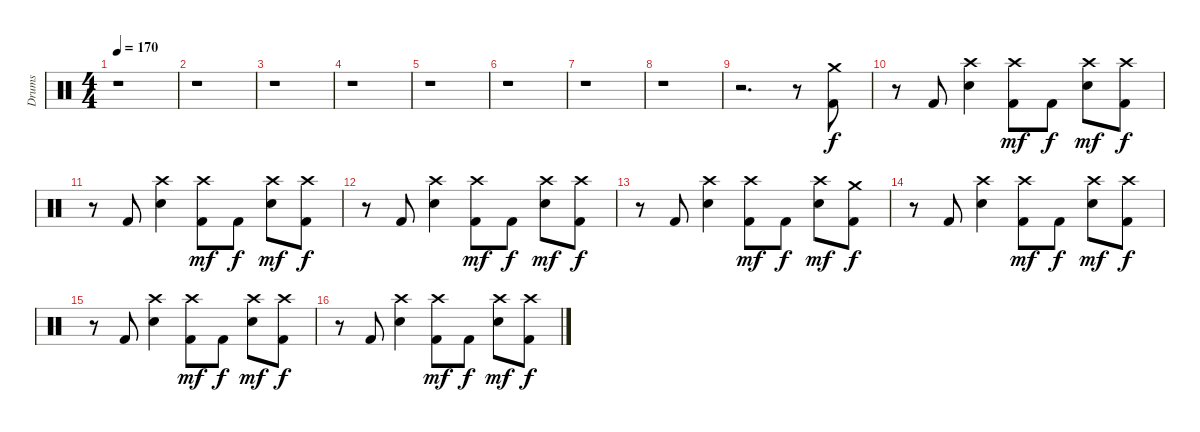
\track ("Drums" "Drums") {instrument percussion}
\staff {score}
\articulation defaults
\ts (4 4)
\tempo 170
\clef neutral
\ks c
r.1{dy f} |
r.1 |
r.1 |
r.1 |
r.1 |
r.1 |
r.1 |
r.1 |
r.2{d} r.8 ("Crash medium (hit)" "Kick (hit) 2").8 |
r.8 "Kick (hit) 2".8 ("Crash high (hit)" "Electric Snare (hit)").4 ("Crash high (hit)" "Kick (hit) 2").8{dy mf} "Kick (hit) 2".8{dy f} ("Crash high (hit)" "Electric Snare (hit)").8{dy mf} ("Crash high (hit)" "Kick (hit) 2").8{dy f} |
r.8 "Kick (hit) 2".8 ("Crash high (hit)" "Electric Snare (hit)").4 ("Crash high (hit)" "Kick (hit) 2").8{dy mf} "Kick (hit) 2".8{dy f} ("Crash high (hit)" "Electric Snare (hit)").8{dy mf} ("Crash high (hit)" "Kick (hit) 2").8{dy f} |
r.8 "Kick (hit) 2".8 ("Crash high (hit)" "Electric Snare (hit)").4 ("Crash high (hit)" "Kick (hit) 2").8{dy mf} "Kick (hit) 2".8{dy f} ("Crash high (hit)" "Electric Snare (hit)").8{dy mf} ("Crash high (hit)" "Kick (hit) 2").8{dy f} |
r.8 "Kick (hit) 2".8 ("Crash high (hit)" "Electric Snare (hit)").4 ("Crash high (hit)" "Kick (hit) 2").8{dy mf} "Kick (hit) 2".8{dy f} ("Crash high (hit)" "Electric Snare (hit)").8{dy mf} ("Crash medium (hit)" "Kick (hit) 2").8{dy f} |
r.8 "Kick (hit) 2".8 ("Crash high (hit)" "Electric Snare (hit)").4 ("Crash high (hit)" "Kick (hit) 2").8{dy mf} "Kick (hit) 2".8{dy f} ("Crash high (hit)" "Electric Snare (hit)").8{dy mf} ("Crash high (hit)" "Kick (hit) 2").8{dy f} |
r.8 "Kick (hit) 2".8 ("Crash high (hit)" "Electric Snare (hit)").4 ("Crash high (hit)" "Kick (hit) 2").8{dy mf} "Kick (hit) 2".8{dy f} ("Crash high (hit)" "Electric Snare (hit)").8{dy mf} ("Crash high (hit)" "Kick (hit) 2").8{dy f} |
r.8 "Kick (hit) 2".8 ("Crash high (hit)" "Electric Snare (hit)").4 ("Crash high (hit)" "Kick (hit) 2").8{dy mf} "Kick (hit) 2".8{dy f} ("Crash high (hit)" "Electric Snare (hit)").8{dy mf} ("Crash high (hit)" "Kick (hit) 2").8{dy f}
